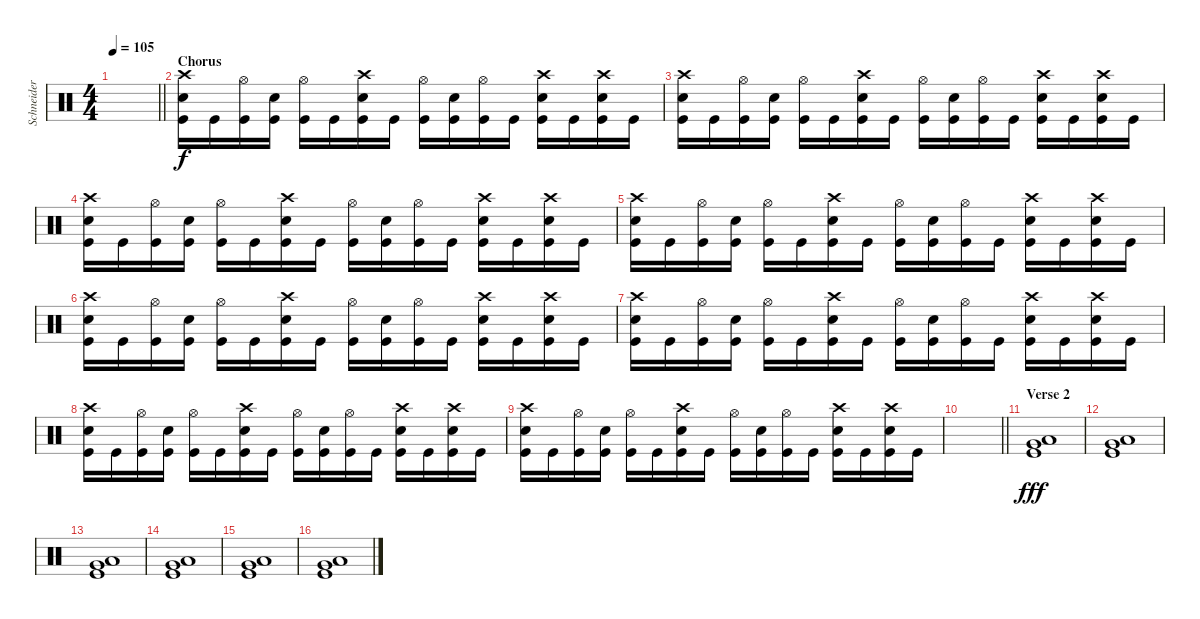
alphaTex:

\track ("Schneider" "Schneider") {instrument percussion}
\staff {score}
\articulation defaults
\ts (4 4)
\tempo 105
\clef neutral
\barLineRight lightlight
\ks c
|
\section ("" "Chorus ")
("Crash high (hit)" "Electric Snare (hit)" "Kick (hit)").16 "Kick (hit)".16 ("Hi-Hat (open)" "Kick (hit)").16 ("Electric Snare (hit)" "Kick (hit)").16 ("Hi-Hat (open)" "Kick (hit)").16 "Kick (hit)".16 ("Crash high (hit)" "Electric Snare (hit)" "Kick (hit)").16 "Kick (hit)".16 ("Hi-Hat (open)" "Kick (hit)").16 ("Electric Snare (hit)" "Kick (hit)").16 ("Hi-Hat (open)" "Kick (hit)").16 "Kick (hit)".16 ("Crash high (hit)" "Electric Snare (hit)" "Kick (hit)").16 "Kick (hit)".16 ("Crash high (hit)" "Electric Snare (hit)" "Kick (hit)").16 "Kick (hit)".16 |
("Crash high (hit)" "Electric Snare (hit)" "Kick (hit)").16 "Kick (hit)".16 ("Hi-Hat (open)" "Kick (hit)").16 ("Electric Snare (hit)" "Kick (hit)").16 ("Hi-Hat (open)" "Kick (hit)").16 "Kick (hit)".16 ("Crash high (hit)" "Electric Snare (hit)" "Kick (hit)").16 "Kick (hit)".16 ("Hi-Hat (open)" "Kick (hit)").16 ("Electric Snare (hit)" "Kick (hit)").16 ("Hi-Hat (open)" "Kick (hit)").16 "Kick (hit)".16 ("Crash high (hit)" "Electric Snare (hit)" "Kick (hit)").16 "Kick (hit)".16 ("Crash high (hit)" "Electric Snare (hit)" "Kick (hit)").16 "Kick (hit)".16 |
("Crash high (hit)" "Electric Snare (hit)" "Kick (hit)").16 "Kick (hit)".16 ("Hi-Hat (open)" "Kick (hit)").16 ("Electric Snare (hit)" "Kick (hit)").16 ("Hi-Hat (open)" "Kick (hit)").16 "Kick (hit)".16 ("Crash high (hit)" "Electric Snare (hit)" "Kick (hit)").16 "Kick (hit)".16 ("Hi-Hat (open)" "Kick (hit)").16 ("Electric Snare (hit)" "Kick (hit)").16 ("Hi-Hat (open)" "Kick (hit)").16 "Kick (hit)".16 ("Crash high (hit)" "Electric Snare (hit)" "Kick (hit)").16 "Kick (hit)".16 ("Crash high (hit)" "Electric Snare (hit)" "Kick (hit)").16 "Kick (hit)".16 |
("Crash high (hit)" "Electric Snare (hit)" "Kick (hit)").16 "Kick (hit)".16 ("Hi-Hat (open)" "Kick (hit)").16 ("Electric Snare (hit)" "Kick (hit)").16 ("Hi-Hat (open)" "Kick (hit)").16 "Kick (hit)".16 ("Crash high (hit)" "Electric Snare (hit)" "Kick (hit)").16 "Kick (hit)".16 ("Hi-Hat (open)" "Kick (hit)").16 ("Electric Snare (hit)" "Kick (hit)").16 ("Hi-Hat (open)" "Kick (hit)").16 "Kick (hit)".16 ("Crash high (hit)" "Electric Snare (hit)" "Kick (hit)").16 "Kick (hit)".16 ("Crash high (hit)" "Electric Snare (hit)" "Kick (hit)").16 "Kick (hit)".16 |
("Crash high (hit)" "Electric Snare (hit)" "Kick (hit)").16 "Kick (hit)".16 ("Hi-Hat (open)" "Kick (hit)").16 ("Electric Snare (hit)" "Kick (hit)").16 ("Hi-Hat (open)" "Kick (hit)").16 "Kick (hit)".16 ("Crash high (hit)" "Electric Snare (hit)" "Kick (hit)").16 "Kick (hit)".16 ("Hi-Hat (open)" "Kick (hit)").16 ("Electric Snare (hit)" "Kick (hit)").16 ("Hi-Hat (open)" "Kick (hit)").16 "Kick (hit)".16 ("Crash high (hit)" "Electric Snare (hit)" "Kick (hit)").16 "Kick (hit)".16 ("Crash high (hit)" "Electric Snare (hit)" "Kick (hit)").16 "Kick (hit)".16 |
("Crash high (hit)" "Electric Snare (hit)" "Kick (hit)").16 "Kick (hit)".16 ("Hi-Hat (open)" "Kick (hit)").16 ("Electric Snare (hit)" "Kick (hit)").16 ("Hi-Hat (open)" "Kick (hit)").16 "Kick (hit)".16 ("Crash high (hit)" "Electric Snare (hit)" "Kick (hit)").16 "Kick (hit)".16 ("Hi-Hat (open)" "Kick (hit)").16 ("Electric Snare (hit)" "Kick (hit)").16 ("Hi-Hat (open)" "Kick (hit)").16 "Kick (hit)".16 ("Crash high (hit)" "Electric Snare (hit)" "Kick (hit)").16 "Kick (hit)".16 ("Crash high (hit)" "Electric Snare (hit)" "Kick (hit)").16 "Kick (hit)".16 |
("Crash high (hit)" "Electric Snare (hit)" "Kick (hit)").16 "Kick (hit)".16 ("Hi-Hat (open)" "Kick (hit)").16 ("Electric Snare (hit)" "Kick (hit)").16 ("Hi-Hat (open)" "Kick (hit)").16 "Kick (hit)".16 ("Crash high (hit)" "Electric Snare (hit)" "Kick (hit)").16 "Kick (hit)".16 ("Hi-Hat (open)" "Kick (hit)").16 ("Electric Snare (hit)" "Kick (hit)").16 ("Hi-Hat (open)" "Kick (hit)").16 "Kick (hit)".16 ("Crash high (hit)" "Electric Snare (hit)" "Kick (hit)").16 "Kick (hit)".16 ("Crash high (hit)" "Electric Snare (hit)" "Kick (hit)").16 "Kick (hit)".16 |
("Crash high (hit)" "Electric Snare (hit)" "Kick (hit)").16 "Kick (hit)".16 ("Hi-Hat (open)" "Kick (hit)").16 ("Electric Snare (hit)" "Kick (hit)").16 ("Hi-Hat (open)" "Kick (hit)").16 "Kick (hit)".16 ("Crash high (hit)" "Electric Snare (hit)" "Kick (hit)").16 "Kick (hit)".16 ("Hi-Hat (open)" "Kick (hit)").16 ("Electric Snare (hit)" "Kick (hit)").16 ("Hi-Hat (open)" "Kick (hit)").16 "Kick (hit)".16 ("Crash high (hit)" "Electric Snare (hit)" "Kick (hit)").16 "Kick (hit)".16 ("Crash high (hit)" "Electric Snare (hit)" "Kick (hit)").16 "Kick (hit)".16 |
\barLineRight lightlight
|
\section ("" "Verse 2")
("Kick (hit)" "Low Floor Tom (hit)" "Very Low Tom (hit)").1{dy fff} |
("Kick (hit)" "Low Floor Tom (hit)" "Very Low Tom (hit)").1 |
("Kick (hit)" "Low Floor Tom (hit)" "Very Low Tom (hit)").1 |
("Kick (hit)" "Low Floor Tom (hit)" "Very Low Tom (hit)").1 |
("Kick (hit)" "Low Floor Tom (hit)" "Very Low Tom (hit)").1 |
("Kick (hit)" "Low Floor Tom (hit)" "Very Low Tom (hit)").1
